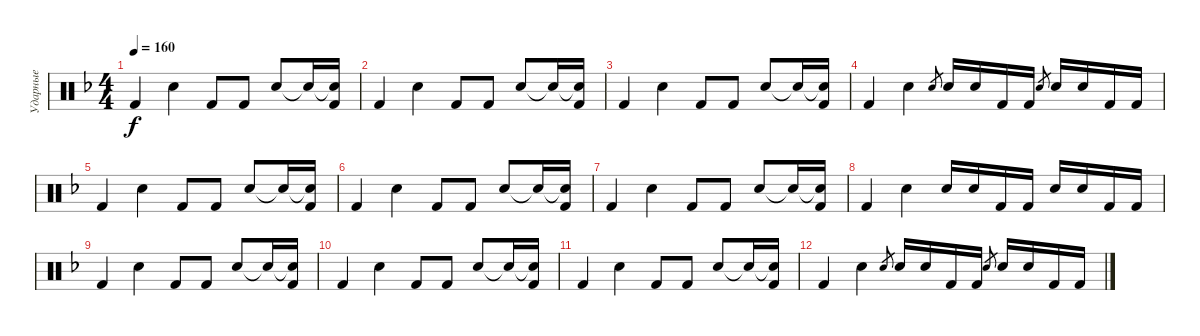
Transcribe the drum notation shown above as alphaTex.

\track ("Ударные" "Ударные") {instrument percussion}
\staff {score}
\articulation defaults
\ts (4 4)
\tempo 160
\clef neutral
\ks dminor "Kick (hit) 2".4{dy f} "Electric Snare (hit)".4 "Kick (hit) 2".8 "Kick (hit) 2".8 "Electric Snare (hit)".8 "Snare (hit)"{t}.16
("Snare (hit)"{t} "Kick (hit) 2").16 |
"Kick (hit) 2".4 "Electric Snare (hit)".4 "Kick (hit) 2".8 "Kick (hit) 2".8 "Electric Snare (hit)".8 "Snare (hit)"{t}.16 ("Snare (hit)"{t} "Kick (hit) 2").16 |
"Kick (hit) 2".4 "Electric Snare (hit)".4 "Kick (hit) 2".8 "Kick (hit) 2".8 "Electric Snare (hit)".8 "Snare (hit)"{t}.16 ("Snare (hit)"{t} "Kick (hit) 2").16 |
"Kick (hit) 2".4 "Electric Snare (hit)".4 "Snare (hit) 2".8{gr} "Electric Snare (hit)".16 "Electric Snare (hit)".16 "Kick (hit) 2".16 "Kick (hit) 2".16 "Snare (hit) 2".8{gr} "Electric Snare (hit)".16 "Electric Snare (hit)".16 "Kick (hit) 2".16 "Kick (hit) 2".16 |
"Kick (hit) 2".4 "Electric Snare (hit)".4 "Kick (hit) 2".8 "Kick (hit) 2".8 "Electric Snare (hit)".8 "Snare (hit)"{t}.16 ("Snare (hit)"{t} "Kick (hit) 2").16 |
"Kick (hit) 2".4 "Electric Snare (hit)".4 "Kick (hit) 2".8 "Kick (hit) 2".8 "Electric Snare (hit)".8 "Snare (hit)"{t}.16 ("Snare (hit)"{t} "Kick (hit) 2").16 |
"Kick (hit) 2".4 "Electric Snare (hit)".4 "Kick (hit) 2".8 "Kick (hit) 2".8 "Electric Snare (hit)".8 "Snare (hit)"{t}.16 ("Snare (hit)"{t} "Kick (hit) 2").16 |
"Kick (hit) 2".4 "Electric Snare (hit)".4 "Electric Snare (hit)".16 "Electric Snare (hit)".16 "Kick (hit) 2".16 "Kick (hit) 2".16 "Electric Snare (hit)".16 "Electric Snare (hit)".16 "Kick (hit) 2".16 "Kick (hit) 2".16 |
"Kick (hit) 2".4 "Electric Snare (hit)".4 "Kick (hit) 2".8 "Kick (hit) 2".8 "Electric Snare (hit)".8 "Snare (hit)"{t}.16 ("Snare (hit)"{t} "Kick (hit) 2").16 |
"Kick (hit) 2".4 "Electric Snare (hit)".4 "Kick (hit) 2".8 "Kick (hit) 2".8 "Electric Snare (hit)".8 "Snare (hit)"{t}.16 ("Snare (hit)"{t} "Kick (hit) 2").16 |
"Kick (hit) 2".4 "Electric Snare (hit)".4 "Kick (hit) 2".8 "Kick (hit) 2".8 "Electric Snare (hit)".8 "Snare (hit)"{t}.16 ("Snare (hit)"{t} "Kick (hit) 2").16 |
"Kick (hit) 2".4 "Electric Snare (hit)".4 "Snare (hit) 2".8{gr} "Electric Snare (hit)".16 "Electric Snare (hit)".16 "Kick (hit) 2".16 "Kick (hit) 2".16 "Snare (hit) 2".8{gr} "Electric Snare (hit)".16 "Electric Snare (hit)".16 "Kick (hit) 2".16 "Kick (hit) 2".16
